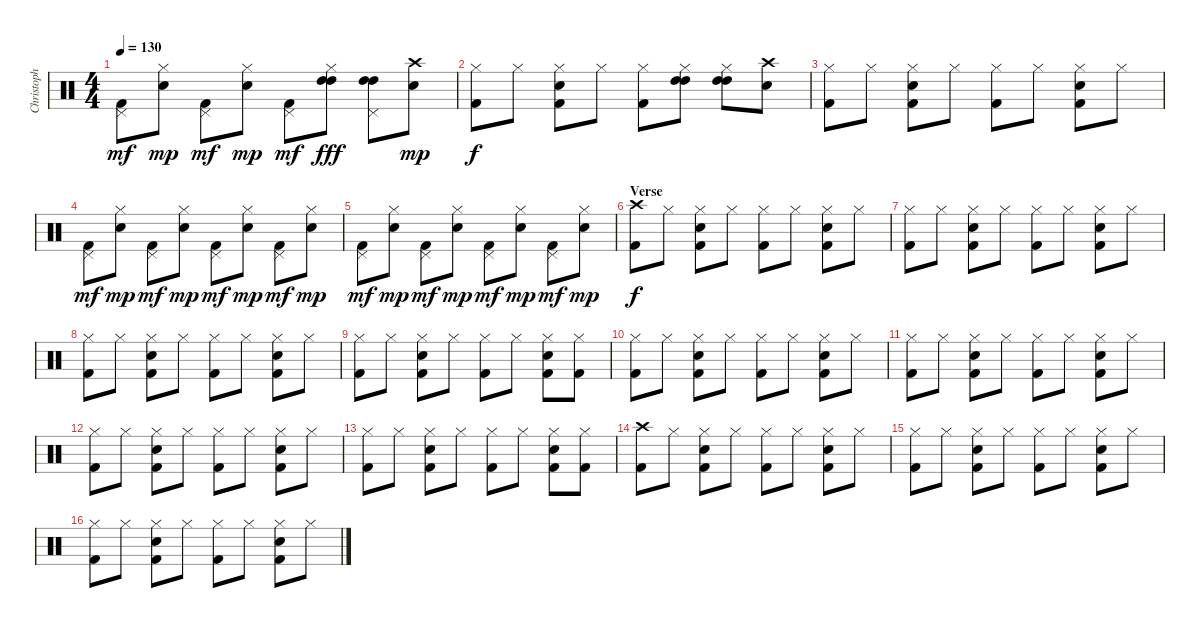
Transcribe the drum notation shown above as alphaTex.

\track ("Christoph" "Christoph") {instrument percussion}
\staff {score}
\articulation defaults
\ts (4 4)
\tempo 130
\clef neutral
\ks c
("Pedal Hi-Hat (hit)" "Kick (hit) 2").8{dy mf} ("Hi-Hat (closed)" "Electric Snare (hit)").8{dy mp} ("Pedal Hi-Hat (hit)" "Kick (hit) 2").8{dy mf} ("Hi-Hat (closed)" "Electric Snare (hit)").8{dy mp} ("Pedal Hi-Hat (hit)" "Kick (hit) 2").8{dy mf} ("Hi-Hat (closed)" "High Tom (hit)" "High Tom (hit)").8{dy fff} ("Pedal Hi-Hat (hit)" "High Tom (hit)" "High Tom (hit)").8 ("Crash high (hit)" "Electric Snare (hit)").8{dy mp} |
("Hi-Hat (closed)" "Kick (hit) 2").8{dy f} "Hi-Hat (closed)".8 ("Hi-Hat (closed)" "Electric Snare (hit)" "Kick (hit) 2").8 "Hi-Hat (closed)".8 ("Hi-Hat (closed)" "Kick (hit) 2").8 ("Hi-Hat (closed)" "High Tom (hit)" "High Tom (hit)").8 ("Hi-Hat (closed)" "High Tom (hit)" "High Tom (hit)").8 ("Crash high (hit)" "Electric Snare (hit)").8 |
("Hi-Hat (closed)" "Kick (hit) 2").8 "Hi-Hat (closed)".8 ("Hi-Hat (closed)" "Electric Snare (hit)" "Kick (hit) 2").8 "Hi-Hat (closed)".8 ("Hi-Hat (closed)" "Kick (hit) 2").8 "Hi-Hat (closed)".8 ("Hi-Hat (closed)" "Electric Snare (hit)" "Kick (hit) 2").8 "Hi-Hat (closed)".8 |
("Pedal Hi-Hat (hit)" "Kick (hit) 2").8{dy mf} ("Hi-Hat (closed)" "Electric Snare (hit)").8{dy mp} ("Pedal Hi-Hat (hit)" "Kick (hit) 2").8{dy mf} ("Hi-Hat (closed)" "Electric Snare (hit)").8{dy mp} ("Pedal Hi-Hat (hit)" "Kick (hit) 2").8{dy mf} ("Hi-Hat (closed)" "Electric Snare (hit)").8{dy mp} ("Pedal Hi-Hat (hit)" "Kick (hit) 2").8{dy mf} ("Hi-Hat (closed)" "Electric Snare (hit)").8{dy mp} |
("Pedal Hi-Hat (hit)" "Kick (hit) 2").8{dy mf} ("Hi-Hat (closed)" "Electric Snare (hit)").8{dy mp} ("Pedal Hi-Hat (hit)" "Kick (hit) 2").8{dy mf} ("Hi-Hat (closed)" "Electric Snare (hit)").8{dy mp} ("Pedal Hi-Hat (hit)" "Kick (hit) 2").8{dy mf} ("Hi-Hat (closed)" "Electric Snare (hit)").8{dy mp} ("Pedal Hi-Hat (hit)" "Kick (hit) 2").8{dy mf} ("Hi-Hat (closed)" "Electric Snare (hit)").8{dy mp} |
\section ("" "Verse")
("Crash high (hit)" "Kick (hit) 2").8{dy f} "Hi-Hat (closed)".8 ("Hi-Hat (closed)" "Electric Snare (hit)" "Kick (hit) 2").8 "Hi-Hat (closed)".8 ("Hi-Hat (closed)" "Kick (hit) 2").8 "Hi-Hat (closed)".8 ("Hi-Hat (closed)" "Electric Snare (hit)" "Kick (hit) 2").8 "Hi-Hat (closed)".8 |
("Hi-Hat (closed)" "Kick (hit) 2").8 "Hi-Hat (closed)".8 ("Hi-Hat (closed)" "Electric Snare (hit)" "Kick (hit) 2").8 "Hi-Hat (closed)".8 ("Hi-Hat (closed)" "Kick (hit) 2").8 "Hi-Hat (closed)".8 ("Hi-Hat (closed)" "Electric Snare (hit)" "Kick (hit) 2").8 "Hi-Hat (closed)".8 |
("Hi-Hat (closed)" "Kick (hit) 2").8 "Hi-Hat (closed)".8 ("Hi-Hat (closed)" "Electric Snare (hit)" "Kick (hit) 2").8 "Hi-Hat (closed)".8 ("Hi-Hat (closed)" "Kick (hit) 2").8 "Hi-Hat (closed)".8 ("Hi-Hat (closed)" "Electric Snare (hit)" "Kick (hit) 2").8 "Hi-Hat (closed)".8 |
("Hi-Hat (closed)" "Kick (hit) 2").8 "Hi-Hat (closed)".8 ("Hi-Hat (closed)" "Electric Snare (hit)" "Kick (hit) 2").8 "Hi-Hat (closed)".8 ("Hi-Hat (closed)" "Kick (hit) 2").8 "Hi-Hat (closed)".8 ("Hi-Hat (closed)" "Electric Snare (hit)" "Kick (hit) 2").8 ("Hi-Hat (closed)" "Kick (hit) 2").8 |
("Hi-Hat (closed)" "Kick (hit) 2").8 "Hi-Hat (closed)".8 ("Hi-Hat (closed)" "Electric Snare (hit)" "Kick (hit) 2").8 "Hi-Hat (closed)".8 ("Hi-Hat (closed)" "Kick (hit) 2").8 "Hi-Hat (closed)".8 ("Hi-Hat (closed)" "Electric Snare (hit)" "Kick (hit) 2").8 "Hi-Hat (closed)".8 |
("Hi-Hat (closed)" "Kick (hit) 2").8 "Hi-Hat (closed)".8 ("Hi-Hat (closed)" "Electric Snare (hit)" "Kick (hit) 2").8 "Hi-Hat (closed)".8 ("Hi-Hat (closed)" "Kick (hit) 2").8 "Hi-Hat (closed)".8 ("Hi-Hat (closed)" "Electric Snare (hit)" "Kick (hit) 2").8 "Hi-Hat (closed)".8 |
("Hi-Hat (closed)" "Kick (hit) 2").8 "Hi-Hat (closed)".8 ("Hi-Hat (closed)" "Electric Snare (hit)" "Kick (hit) 2").8 "Hi-Hat (closed)".8 ("Hi-Hat (closed)" "Kick (hit) 2").8 "Hi-Hat (closed)".8 ("Hi-Hat (closed)" "Electric Snare (hit)" "Kick (hit) 2").8 "Hi-Hat (closed)".8 |
("Hi-Hat (closed)" "Kick (hit) 2").8 "Hi-Hat (closed)".8 ("Hi-Hat (closed)" "Electric Snare (hit)" "Kick (hit) 2").8 "Hi-Hat (closed)".8 ("Hi-Hat (closed)" "Kick (hit) 2").8 "Hi-Hat (closed)".8 ("Hi-Hat (closed)" "Electric Snare (hit)" "Kick (hit) 2").8 ("Hi-Hat (closed)" "Kick (hit) 2").8 |
("Crash high (hit)" "Kick (hit) 2").8 "Hi-Hat (closed)".8 ("Hi-Hat (closed)" "Electric Snare (hit)" "Kick (hit) 2").8 "Hi-Hat (closed)".8 ("Hi-Hat (closed)" "Kick (hit) 2").8 "Hi-Hat (closed)".8 ("Hi-Hat (closed)" "Electric Snare (hit)" "Kick (hit) 2").8 "Hi-Hat (closed)".8 |
("Hi-Hat (closed)" "Kick (hit) 2").8 "Hi-Hat (closed)".8 ("Hi-Hat (closed)" "Electric Snare (hit)" "Kick (hit) 2").8 "Hi-Hat (closed)".8 ("Hi-Hat (closed)" "Kick (hit) 2").8 "Hi-Hat (closed)".8 ("Hi-Hat (closed)" "Electric Snare (hit)" "Kick (hit) 2").8 "Hi-Hat (closed)".8 |
("Hi-Hat (closed)" "Kick (hit) 2").8 "Hi-Hat (closed)".8 ("Hi-Hat (closed)" "Electric Snare (hit)" "Kick (hit) 2").8 "Hi-Hat (closed)".8 ("Hi-Hat (closed)" "Kick (hit) 2").8 "Hi-Hat (closed)".8 ("Hi-Hat (closed)" "Electric Snare (hit)" "Kick (hit) 2").8 "Hi-Hat (closed)".8
